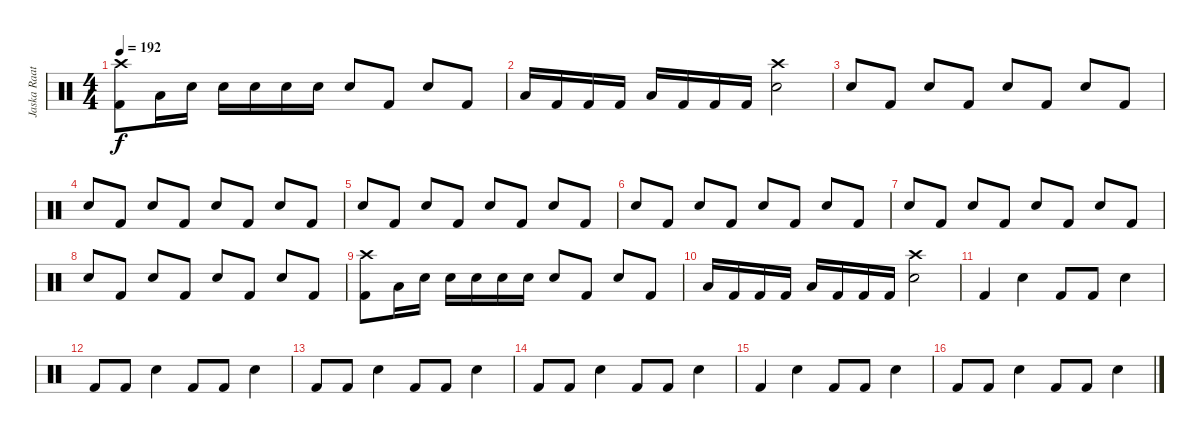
\track ("Jaska Raatikainen " "Jaska Raat") {instrument percussion}
\staff {score}
\articulation defaults
\ts (4 4)
\tempo 192
\clef neutral
\ks c
("Crash high (hit)" "Kick (hit) 2").8{dy f} "Low Floor Tom (hit)".16 "Snare (hit) 2".16 "Snare (hit) 2".16 "Snare (hit) 2".16 "Snare (hit) 2".16 "Snare (hit) 2".16 "Snare (hit) 2".8 "Kick (hit) 2".8 "Snare (hit) 2".8 "Kick (hit) 2".8 |
"Low Floor Tom (hit)".16 "Kick (hit) 2".16 "Kick (hit) 2".16 "Kick (hit) 2".16 "Low Floor Tom (hit)".16 "Kick (hit) 2".16 "Kick (hit) 2".16 "Kick (hit) 2".16 ("Crash high (hit)" "Snare (hit) 2").2 |
"Snare (hit) 2".8 "Kick (hit) 2".8 "Snare (hit) 2".8 "Kick (hit) 2".8 "Snare (hit) 2".8 "Kick (hit) 2".8 "Snare (hit) 2".8 "Kick (hit) 2".8 |
"Snare (hit) 2".8 "Kick (hit) 2".8 "Snare (hit) 2".8 "Kick (hit) 2".8 "Snare (hit) 2".8 "Kick (hit) 2".8 "Snare (hit) 2".8 "Kick (hit) 2".8 |
"Snare (hit) 2".8 "Kick (hit) 2".8 "Snare (hit) 2".8 "Kick (hit) 2".8 "Snare (hit) 2".8 "Kick (hit) 2".8 "Snare (hit) 2".8 "Kick (hit) 2".8 |
"Snare (hit) 2".8 "Kick (hit) 2".8 "Snare (hit) 2".8 "Kick (hit) 2".8 "Snare (hit) 2".8 "Kick (hit) 2".8 "Snare (hit) 2".8 "Kick (hit) 2".8 |
"Snare (hit) 2".8 "Kick (hit) 2".8 "Snare (hit) 2".8 "Kick (hit) 2".8 "Snare (hit) 2".8 "Kick (hit) 2".8 "Snare (hit) 2".8 "Kick (hit) 2".8 |
"Snare (hit) 2".8 "Kick (hit) 2".8 "Snare (hit) 2".8 "Kick (hit) 2".8 "Snare (hit) 2".8 "Kick (hit) 2".8 "Snare (hit) 2".8 "Kick (hit) 2".8 |
("Crash high (hit)" "Kick (hit) 2").8 "Low Floor Tom (hit)".16 "Snare (hit) 2".16 "Snare (hit) 2".16 "Snare (hit) 2".16 "Snare (hit) 2".16 "Snare (hit) 2".16 "Snare (hit) 2".8 "Kick (hit) 2".8 "Snare (hit) 2".8 "Kick (hit) 2".8 |
"Low Floor Tom (hit)".16 "Kick (hit) 2".16 "Kick (hit) 2".16 "Kick (hit) 2".16 "Low Floor Tom (hit)".16 "Kick (hit) 2".16 "Kick (hit) 2".16 "Kick (hit) 2".16 ("Crash high (hit)" "Snare (hit) 2").2 |
"Kick (hit) 2".4 "Snare (hit) 2".4 "Kick (hit) 2".8 "Kick (hit) 2".8 "Snare (hit) 2".4 |
"Kick (hit) 2".8 "Kick (hit) 2".8 "Snare (hit) 2".4 "Kick (hit) 2".8 "Kick (hit) 2".8 "Snare (hit) 2".4 |
"Kick (hit) 2".8 "Kick (hit) 2".8 "Snare (hit) 2".4 "Kick (hit) 2".8 "Kick (hit) 2".8 "Snare (hit) 2".4 |
"Kick (hit) 2".8 "Kick (hit) 2".8 "Snare (hit) 2".4 "Kick (hit) 2".8 "Kick (hit) 2".8 "Snare (hit) 2".4 |
"Kick (hit) 2".4 "Snare (hit) 2".4 "Kick (hit) 2".8 "Kick (hit) 2".8 "Snare (hit) 2".4 |
"Kick (hit) 2".8 "Kick (hit) 2".8 "Snare (hit) 2".4 "Kick (hit) 2".8 "Kick (hit) 2".8 "Snare (hit) 2".4
